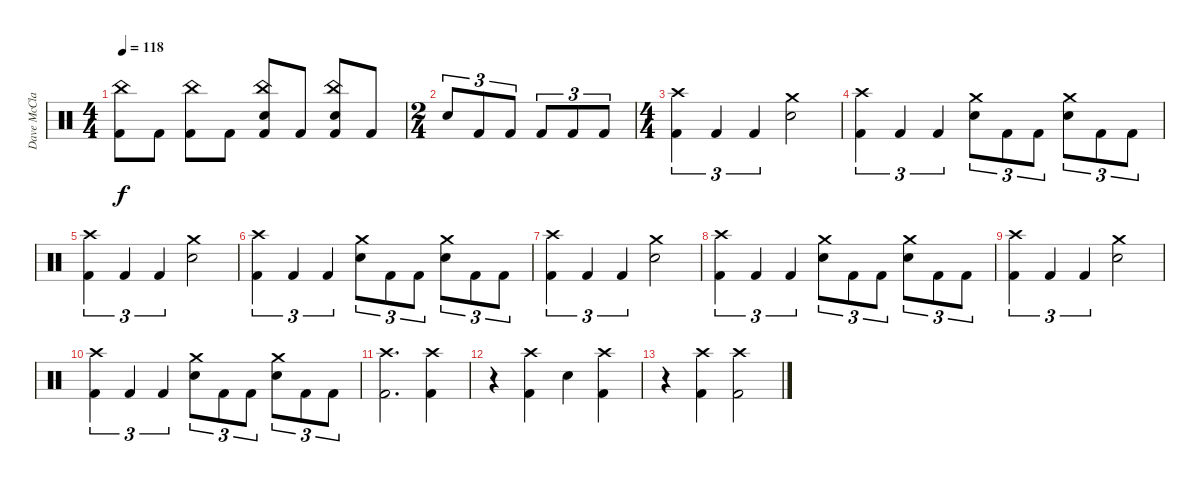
\track ("Dave McClain" "Dave McCla") {instrument percussion}
\staff {score}
\articulation defaults
\ts (4 4)
\tempo 118
\clef neutral
\ks c
("Kick (hit) 2" "China (hit)").8{dy f} "Kick (hit) 2".8 ("Kick (hit) 2" "China (hit)").8 "Kick (hit) 2".8 ("Kick (hit) 2" "Snare (hit) 2" "China (hit)").8 "Kick (hit) 2".8 ("Kick (hit) 2" "Snare (hit) 2" "China (hit)").8 "Kick (hit) 2".8 |
\ts (2 4)
"Snare (hit) 2".8{tu (3 2)} "Kick (hit) 2".8{tu (3 2)} "Kick (hit) 2".8{tu (3 2)} "Kick (hit) 2".8{tu (3 2)} "Kick (hit) 2".8{tu (3 2)} "Kick (hit) 2".8{tu (3 2)} |
\ts (4 4)
("Kick (hit) 2" "Crash high (hit)").4{tu (3 2)} "Kick (hit) 2".4{tu (3 2)} "Kick (hit) 2".4{tu (3 2)} ("Snare (hit) 2" "Crash medium (hit)").2 |
("Kick (hit) 2" "Crash high (hit)").4{tu (3 2)} "Kick (hit) 2".4{tu (3 2)} "Kick (hit) 2".4{tu (3 2)} ("Snare (hit) 2" "Crash medium (hit)").8{tu (3 2)} "Kick (hit) 2".8{tu (3 2)} "Kick (hit) 2".8{tu (3 2)} ("Snare (hit) 2" "Crash medium (hit)").8{tu (3 2)} "Kick (hit) 2".8{tu (3 2)} "Kick (hit) 2".8{tu (3 2)} |
("Kick (hit) 2" "Crash high (hit)").4{tu (3 2)} "Kick (hit) 2".4{tu (3 2)} "Kick (hit) 2".4{tu (3 2)} ("Snare (hit) 2" "Crash medium (hit)").2 |
("Kick (hit) 2" "Crash high (hit)").4{tu (3 2)} "Kick (hit) 2".4{tu (3 2)} "Kick (hit) 2".4{tu (3 2)} ("Snare (hit) 2" "Crash medium (hit)").8{tu (3 2)} "Kick (hit) 2".8{tu (3 2)} "Kick (hit) 2".8{tu (3 2)} ("Snare (hit) 2" "Crash medium (hit)").8{tu (3 2)} "Kick (hit) 2".8{tu (3 2)} "Kick (hit) 2".8{tu (3 2)} |
("Kick (hit) 2" "Crash high (hit)").4{tu (3 2)} "Kick (hit) 2".4{tu (3 2)} "Kick (hit) 2".4{tu (3 2)} ("Snare (hit) 2" "Crash medium (hit)").2 |
("Kick (hit) 2" "Crash high (hit)").4{tu (3 2)} "Kick (hit) 2".4{tu (3 2)} "Kick (hit) 2".4{tu (3 2)} ("Snare (hit) 2" "Crash medium (hit)").8{tu (3 2)} "Kick (hit) 2".8{tu (3 2)} "Kick (hit) 2".8{tu (3 2)} ("Snare (hit) 2" "Crash medium (hit)").8{tu (3 2)} "Kick (hit) 2".8{tu (3 2)} "Kick (hit) 2".8{tu (3 2)} |
("Kick (hit) 2" "Crash high (hit)").4{tu (3 2)} "Kick (hit) 2".4{tu (3 2)} "Kick (hit) 2".4{tu (3 2)} ("Snare (hit) 2" "Crash medium (hit)").2 |
("Kick (hit) 2" "Crash high (hit)").4{tu (3 2)} "Kick (hit) 2".4{tu (3 2)} "Kick (hit) 2".4{tu (3 2)} ("Snare (hit) 2" "Crash medium (hit)").8{tu (3 2)} "Kick (hit) 2".8{tu (3 2)} "Kick (hit) 2".8{tu (3 2)} ("Snare (hit) 2" "Crash medium (hit)").8{tu (3 2)} "Kick (hit) 2".8{tu (3 2)} "Kick (hit) 2".8{tu (3 2)} |
("Kick (hit) 2" "Crash high (hit)").2{d} ("Kick (hit) 2" "Crash high (hit)").4 |
r.4 ("Kick (hit) 2" "Crash high (hit)").4 "Snare (hit) 2".4 ("Kick (hit) 2" "Crash high (hit)").4 |
r.4 ("Kick (hit) 2" "Crash high (hit)").4 ("Kick (hit) 2" "Crash high (hit)").2
